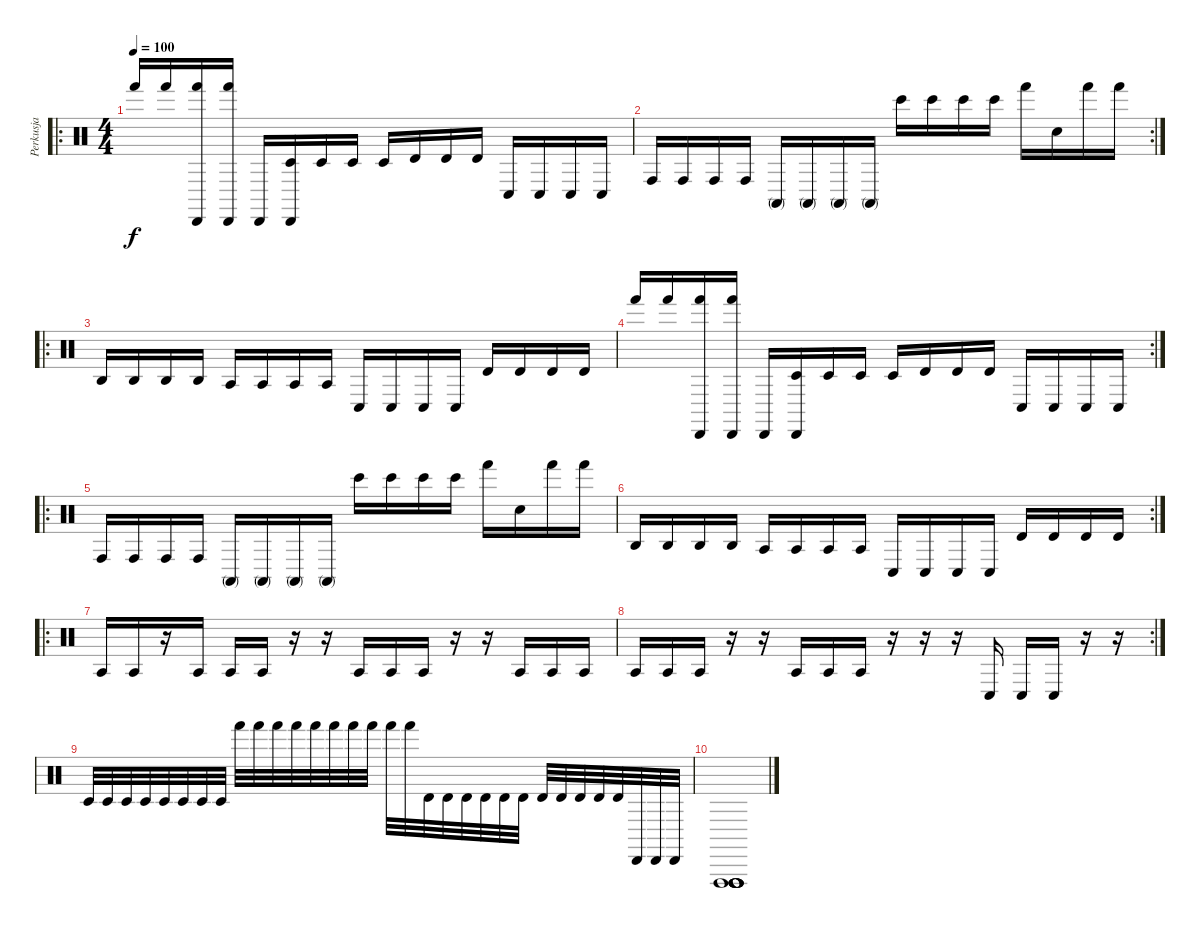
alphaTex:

\track ("Perkusja" "Perkusja") {instrument percussion}
\staff {score}
\articulation defaults
\ro
\ts (4 4)
\tempo 100
\clef neutral
\ks c "Hand (hit)".16{dy f} "Hand (hit)".16
("Cabasa (hit)" "Hand (hit)").16 ("Cabasa (hit)" "Hand (hit)").16 "Cabasa (hit)".16 ("Cabasa (hit)" "Timbale low (hit)").16 "Timbale low (hit)".16 "Timbale low (hit)".16 "Timbale low (hit)".16 "Timbale high (hit)".16 "Timbale high (hit)".16 "Timbale high (hit)".16 "Conga low (hit)".16 "Conga low (hit)".16 "Conga low (hit)".16 "Conga low (hit)".16 |
\rc 2 "Conga high (hit)".16 "Conga high (hit)".16 "Conga high (hit)".16 "Conga high (hit)".16 "Conga high (mute)".16 "Conga high (mute)".16 "Conga high (mute)".16 "Conga high (mute)".16 "Bongo High (hit)".16 "Bongo High (hit)".16 "Bongo High (hit)".16 "Bongo High (hit)".16 "Hand (hit)".16 "Snare (hit)".16 "Hand (hit)".16 "Hand (hit)".16
|
\ro "Agogo high (hit)".16 "Agogo high (hit)".16 "Agogo high (hit)".16 "Agogo high (hit)".16 "Agogo tow (hit)".16 "Agogo tow (hit)".16 "Agogo tow (hit)".16 "Agogo tow (hit)".16 "Conga low (hit)".16 "Conga low (hit)".16 "Conga low (hit)".16 "Conga low (hit)".16 "Timbale high (hit)".16 "Timbale high (hit)".16 "Timbale high (hit)".16 "Timbale high (hit)".16
|
\rc 2 "Hand (hit)".16 "Hand (hit)".16
("Cabasa (hit)" "Hand (hit)").16 ("Cabasa (hit)" "Hand (hit)").16 "Cabasa (hit)".16 ("Cabasa (hit)" "Timbale low (hit)").16 "Timbale low (hit)".16 "Timbale low (hit)".16 "Timbale low (hit)".16 "Timbale high (hit)".16 "Timbale high (hit)".16 "Timbale high (hit)".16 "Conga low (hit)".16 "Conga low (hit)".16 "Conga low (hit)".16 "Conga low (hit)".16 |
\ro "Conga high (hit)".16 "Conga high (hit)".16 "Conga high (hit)".16 "Conga high (hit)".16 "Conga high (mute)".16 "Conga high (mute)".16 "Conga high (mute)".16 "Conga high (mute)".16 "Bongo High (hit)".16 "Bongo High (hit)".16 "Bongo High (hit)".16 "Bongo High (hit)".16 "Hand (hit)".16 "Snare (hit)".16 "Hand (hit)".16 "Hand (hit)".16
|
\rc 2 "Agogo high (hit)".16 "Agogo high (hit)".16 "Agogo high (hit)".16 "Agogo high (hit)".16 "Agogo tow (hit)".16 "Agogo tow (hit)".16 "Agogo tow (hit)".16 "Agogo tow (hit)".16 "Conga low (hit)".16 "Conga low (hit)".16 "Conga low (hit)".16 "Conga low (hit)".16 "Timbale high (hit)".16 "Timbale high (hit)".16 "Timbale high (hit)".16 "Timbale high (hit)".16
|
\ro "Agogo tow (hit)".16 "Agogo tow (hit)".16
r.16 "Agogo tow (hit)".16 "Agogo tow (hit)".16 "Agogo tow (hit)".16 r.16 r.16 "Agogo tow (hit)".16 "Agogo tow (hit)".16 "Agogo tow (hit)".16 r.16 r.16 "Agogo tow (hit)".16 "Agogo tow (hit)".16 "Agogo tow (hit)".16 |
\rc 2 "Agogo tow (hit)".16 "Agogo tow (hit)".16 "Agogo tow (hit)".16
r.16 r.16 "Agogo tow (hit)".16 "Agogo tow (hit)".16 "Agogo tow (hit)".16 r.16 r.16 r.16 "Conga low (hit)".16 "Conga low (hit)".16 "Conga low (hit)".16 r.16 r.16 |
"Timbale low (hit)".32 "Timbale low (hit)".32 "Timbale low (hit)".32 "Timbale low (hit)".32 "Timbale low (hit)".32 "Timbale low (hit)".32 "Timbale low (hit)".32 "Timbale low (hit)".32 "Hand (hit)".32 "Hand (hit)".32 "Hand (hit)".32 "Hand (hit)".32 "Hand (hit)".32 "Hand (hit)".32 "Hand (hit)".32 "Hand (hit)".32 "Hand (hit)".32 "Hand (hit)".32 "Timbale high (hit)".32 "Timbale high (hit)".32 "Timbale high (hit)".32 "Timbale high (hit)".32 "Timbale high (hit)".32 "Timbale high (hit)".32 "Timbale high (hit)".32 "Timbale high (hit)".32 "Timbale high (hit)".32 "Timbale high (hit)".32 "Timbale high (hit)".32 "Cabasa (hit)".32 "Cabasa (hit)".32 "Cabasa (hit)".32 |
("Vibraslap (hit)" "Vibraslap (hit)" "Vibraslap (hit)" "Vibraslap (hit)" "Vibraslap (hit)" "Vibraslap (hit)").1
